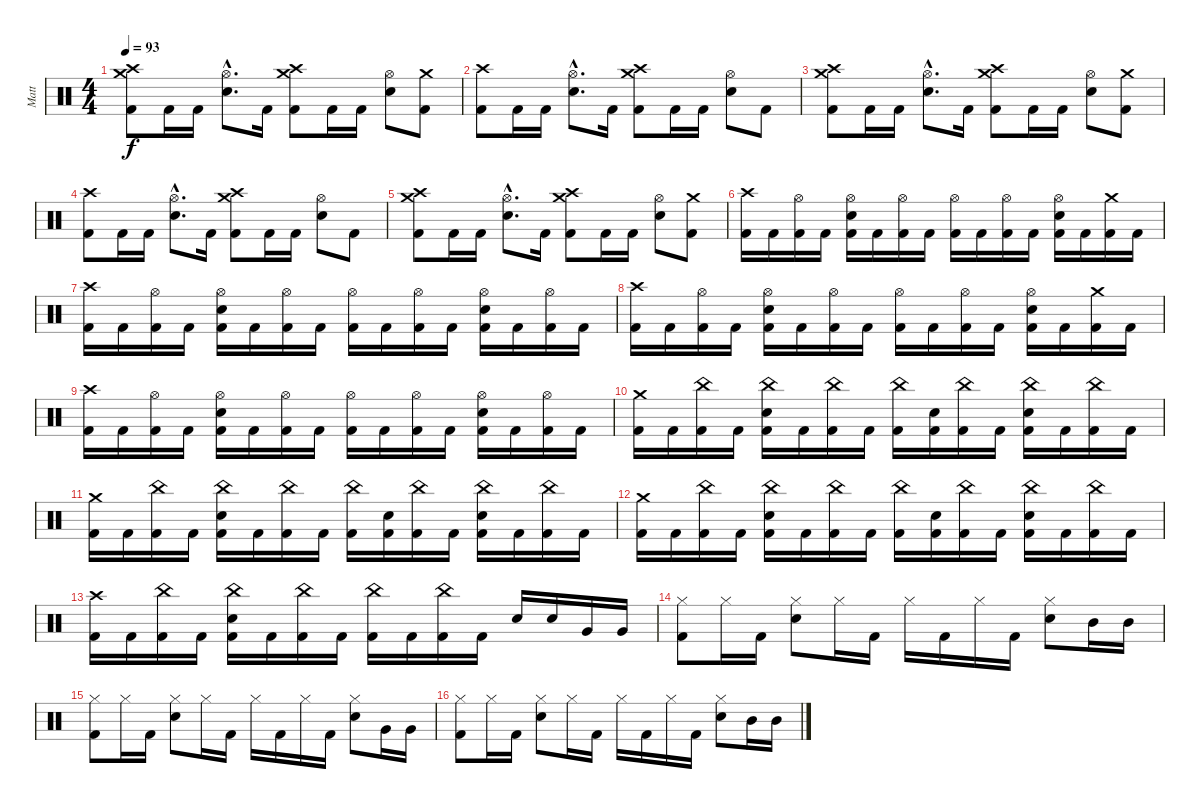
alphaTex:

\track ("Matt" "Matt") {instrument percussion}
\staff {score}
\articulation defaults
\ts (4 4)
\tempo 93
\clef neutral
\ks c
("Crash medium (hit)" "Crash high (hit)" "Kick (hit) 2").8{dy f} "Kick (hit) 2".16 "Kick (hit) 2".16 ("Hi-Hat (open)"{hac} "Electric Snare (hit)"{hac}).8{d} "Kick (hit) 2".16 ("Crash medium (hit)" "Crash high (hit)" "Kick (hit) 2").8 "Kick (hit) 2".16 "Kick (hit) 2".16 ("Hi-Hat (open)" "Electric Snare (hit)").8 ("Crash medium (hit)" "Kick (hit) 2").8 |
("Crash high (hit)" "Kick (hit) 2").8 "Kick (hit) 2".16 "Kick (hit) 2".16 ("Hi-Hat (open)"{hac} "Electric Snare (hit)"{hac}).8{d} "Kick (hit) 2".16 ("Crash medium (hit)" "Crash high (hit)" "Kick (hit) 2").8 "Kick (hit) 2".16 "Kick (hit) 2".16 ("Hi-Hat (open)" "Electric Snare (hit)").8 "Kick (hit) 2".8 |
("Crash medium (hit)" "Crash high (hit)" "Kick (hit) 2").8 "Kick (hit) 2".16 "Kick (hit) 2".16 ("Hi-Hat (open)"{hac} "Electric Snare (hit)"{hac}).8{d} "Kick (hit) 2".16 ("Crash medium (hit)" "Crash high (hit)" "Kick (hit) 2").8 "Kick (hit) 2".16 "Kick (hit) 2".16 ("Hi-Hat (open)" "Electric Snare (hit)").8 ("Crash medium (hit)" "Kick (hit) 2").8 |
("Crash high (hit)" "Kick (hit) 2").8 "Kick (hit) 2".16 "Kick (hit) 2".16 ("Hi-Hat (open)"{hac} "Electric Snare (hit)"{hac}).8{d} "Kick (hit) 2".16 ("Crash medium (hit)" "Crash high (hit)" "Kick (hit) 2").8 "Kick (hit) 2".16 "Kick (hit) 2".16 ("Hi-Hat (open)" "Electric Snare (hit)").8 "Kick (hit) 2".8 |
("Crash medium (hit)" "Crash high (hit)" "Kick (hit) 2").8 "Kick (hit) 2".16 "Kick (hit) 2".16 ("Hi-Hat (open)"{hac} "Electric Snare (hit)"{hac}).8{d} "Kick (hit) 2".16 ("Crash medium (hit)" "Crash high (hit)" "Kick (hit) 2").8 "Kick (hit) 2".16 "Kick (hit) 2".16 ("Hi-Hat (open)" "Electric Snare (hit)").8 ("Crash medium (hit)" "Kick (hit) 2").8 |
("Crash high (hit)" "Kick (hit) 2").16 "Kick (hit) 2".16 ("Hi-Hat (open)" "Kick (hit) 2").16 "Kick (hit) 2".16 ("Hi-Hat (open)" "Electric Snare (hit)" "Kick (hit) 2").16 "Kick (hit) 2".16 ("Hi-Hat (open)" "Kick (hit) 2").16 "Kick (hit) 2".16 ("Hi-Hat (open)" "Kick (hit) 2").16 "Kick (hit) 2".16 ("Hi-Hat (open)" "Kick (hit) 2").16 "Kick (hit) 2".16 ("Hi-Hat (open)" "Electric Snare (hit)" "Kick (hit) 2").16 "Kick (hit) 2".16 ("Crash medium (hit)" "Kick (hit) 2").16 "Kick (hit) 2".16 |
("Crash high (hit)" "Kick (hit) 2").16 "Kick (hit) 2".16 ("Hi-Hat (open)" "Kick (hit) 2").16 "Kick (hit) 2".16 ("Hi-Hat (open)" "Electric Snare (hit)" "Kick (hit) 2").16 "Kick (hit) 2".16 ("Hi-Hat (open)" "Kick (hit) 2").16 "Kick (hit) 2".16 ("Hi-Hat (open)" "Kick (hit) 2").16 "Kick (hit) 2".16 ("Hi-Hat (open)" "Kick (hit) 2").16 "Kick (hit) 2".16 ("Hi-Hat (open)" "Electric Snare (hit)" "Kick (hit) 2").16 "Kick (hit) 2".16 ("Hi-Hat (open)" "Kick (hit) 2").16 "Kick (hit) 2".16 |
("Crash high (hit)" "Kick (hit) 2").16 "Kick (hit) 2".16 ("Hi-Hat (open)" "Kick (hit) 2").16 "Kick (hit) 2".16 ("Hi-Hat (open)" "Electric Snare (hit)" "Kick (hit) 2").16 "Kick (hit) 2".16 ("Hi-Hat (open)" "Kick (hit) 2").16 "Kick (hit) 2".16 ("Hi-Hat (open)" "Kick (hit) 2").16 "Kick (hit) 2".16 ("Hi-Hat (open)" "Kick (hit) 2").16 "Kick (hit) 2".16 ("Hi-Hat (open)" "Electric Snare (hit)" "Kick (hit) 2").16 "Kick (hit) 2".16 ("Crash medium (hit)" "Kick (hit) 2").16 "Kick (hit) 2".16 |
("Crash high (hit)" "Kick (hit) 2").16 "Kick (hit) 2".16 ("Hi-Hat (open)" "Kick (hit) 2").16 "Kick (hit) 2".16 ("Hi-Hat (open)" "Electric Snare (hit)" "Kick (hit) 2").16 "Kick (hit) 2".16 ("Hi-Hat (open)" "Kick (hit) 2").16 "Kick (hit) 2".16 ("Hi-Hat (open)" "Kick (hit) 2").16 "Kick (hit) 2".16 ("Hi-Hat (open)" "Kick (hit) 2").16 "Kick (hit) 2".16 ("Hi-Hat (open)" "Electric Snare (hit)" "Kick (hit) 2").16 "Kick (hit) 2".16 ("Hi-Hat (open)" "Kick (hit) 2").16 "Kick (hit) 2".16 |
("Crash medium (hit)" "Kick (hit) 2").16 "Kick (hit) 2".16 ("China (hit)" "Kick (hit) 2").16 "Kick (hit) 2".16 ("China (hit)" "Electric Snare (hit)" "Kick (hit) 2").16 "Kick (hit) 2".16 ("China (hit)" "Kick (hit) 2").16 "Kick (hit) 2".16 ("China (hit)" "Kick (hit) 2").16 ("Electric Snare (hit)" "Kick (hit) 2").16 ("China (hit)" "Kick (hit) 2").16 "Kick (hit) 2".16 ("China (hit)" "Electric Snare (hit)" "Kick (hit) 2").16 "Kick (hit) 2".16 ("China (hit)" "Kick (hit) 2").16 "Kick (hit) 2".16 |
("Crash medium (hit)" "Kick (hit) 2").16 "Kick (hit) 2".16 ("China (hit)" "Kick (hit) 2").16 "Kick (hit) 2".16 ("China (hit)" "Electric Snare (hit)" "Kick (hit) 2").16 "Kick (hit) 2".16 ("China (hit)" "Kick (hit) 2").16 "Kick (hit) 2".16 ("China (hit)" "Kick (hit) 2").16 ("Electric Snare (hit)" "Kick (hit) 2").16 ("China (hit)" "Kick (hit) 2").16 "Kick (hit) 2".16 ("China (hit)" "Electric Snare (hit)" "Kick (hit) 2").16 "Kick (hit) 2".16 ("China (hit)" "Kick (hit) 2").16 "Kick (hit) 2".16 |
("Crash medium (hit)" "Kick (hit) 2").16 "Kick (hit) 2".16 ("China (hit)" "Kick (hit) 2").16 "Kick (hit) 2".16 ("China (hit)" "Electric Snare (hit)" "Kick (hit) 2").16 "Kick (hit) 2".16 ("China (hit)" "Kick (hit) 2").16 "Kick (hit) 2".16 ("China (hit)" "Kick (hit) 2").16 ("Electric Snare (hit)" "Kick (hit) 2").16 ("China (hit)" "Kick (hit) 2").16 "Kick (hit) 2".16 ("China (hit)" "Electric Snare (hit)" "Kick (hit) 2").16 "Kick (hit) 2".16 ("China (hit)" "Kick (hit) 2").16 "Kick (hit) 2".16 |
("Crash high (hit)" "Kick (hit) 2").16 "Kick (hit) 2".16 ("China (hit)" "Kick (hit) 2").16 "Kick (hit) 2".16 ("China (hit)" "Electric Snare (hit)" "Kick (hit) 2").16 "Kick (hit) 2".16 ("China (hit)" "Kick (hit) 2").16 "Kick (hit) 2".16 ("China (hit)" "Kick (hit) 2").16 "Kick (hit) 2".16 ("China (hit)" "Kick (hit) 2").16 "Kick (hit) 2".16 "Electric Snare (hit)".16 "Electric Snare (hit)".16 "Very Low Tom (hit)".16 "Very Low Tom (hit)".16 |
("Hi-Hat (closed)" "Kick (hit) 2").8 "Hi-Hat (closed)".16 "Kick (hit) 2".16 ("Hi-Hat (closed)" "Electric Snare (hit)").8 "Hi-Hat (closed)".16 "Kick (hit) 2".16 "Hi-Hat (closed)".16 "Kick (hit) 2".16 "Hi-Hat (closed)".16 "Kick (hit) 2".16 ("Hi-Hat (closed)" "Electric Snare (hit)").8 "Mid Tom (hit)".16 "Mid Tom (hit)".16 |
("Hi-Hat (closed)" "Kick (hit) 2").8 "Hi-Hat (closed)".16 "Kick (hit) 2".16 ("Hi-Hat (closed)" "Electric Snare (hit)").8 "Hi-Hat (closed)".16 "Kick (hit) 2".16 "Hi-Hat (closed)".16 "Kick (hit) 2".16 "Hi-Hat (closed)".16 "Kick (hit) 2".16 ("Hi-Hat (closed)" "Electric Snare (hit)").8 "Very Low Tom (hit)".16 "Very Low Tom (hit)".16 |
("Hi-Hat (closed)" "Kick (hit) 2").8 "Hi-Hat (closed)".16 "Kick (hit) 2".16 ("Hi-Hat (closed)" "Electric Snare (hit)").8 "Hi-Hat (closed)".16 "Kick (hit) 2".16 "Hi-Hat (closed)".16 "Kick (hit) 2".16 "Hi-Hat (closed)".16 "Kick (hit) 2".16 ("Hi-Hat (closed)" "Electric Snare (hit)").8 "Mid Tom (hit)".16 "Mid Tom (hit)".16
